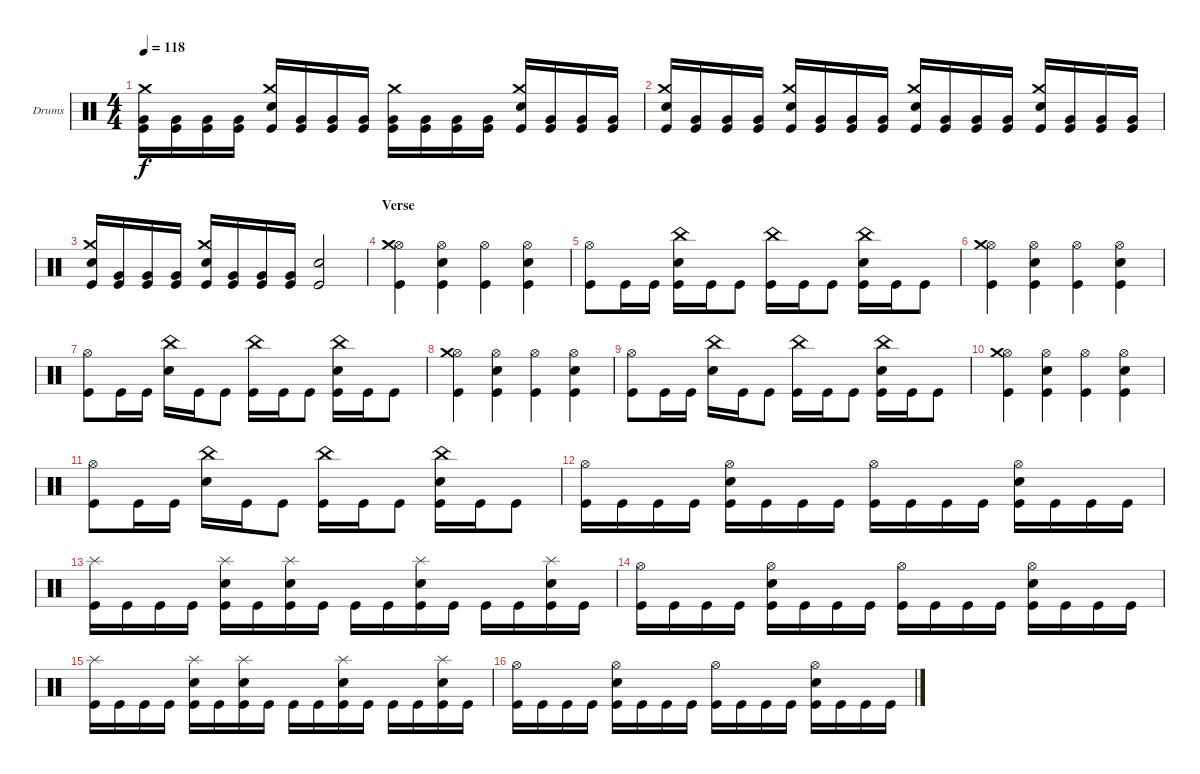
\bracketExtendMode groupsimilarinstruments
\firstSystemTrackNameOrientation horizontal
\otherSystemsTrackNameOrientation horizontal
\track ("Drumkit" "Drums") {solo instrument percussion}
\staff {score}
\articulation defaults
\ts (4 4)
\tempo 118
\clef neutral
\ks c
("Kick (hit)" "Very Low Tom (hit)" "Crash medium (hit)").16{dy f} ("Kick (hit)" "Very Low Tom (hit)").16 ("Kick (hit)" "Very Low Tom (hit)").16 ("Kick (hit)" "Very Low Tom (hit)").16 ("Kick (hit)" "Snare (hit) 2" "Crash medium (hit)").16 ("Kick (hit)" "Very Low Tom (hit)").16 ("Kick (hit)" "Very Low Tom (hit)").16 ("Kick (hit)" "Very Low Tom (hit)").16 ("Kick (hit)" "Very Low Tom (hit)" "Crash medium (hit)").16 ("Kick (hit)" "Very Low Tom (hit)").16 ("Kick (hit)" "Very Low Tom (hit)").16 ("Kick (hit)" "Very Low Tom (hit)").16 ("Kick (hit)" "Snare (hit) 2" "Crash medium (hit)").16 ("Kick (hit)" "Very Low Tom (hit)").16 ("Kick (hit)" "Very Low Tom (hit)").16 ("Kick (hit)" "Very Low Tom (hit)").16 |
("Kick (hit)" "Snare (hit) 2" "Crash medium (hit)").16 ("Kick (hit)" "Very Low Tom (hit)").16 ("Kick (hit)" "Very Low Tom (hit)").16 ("Kick (hit)" "Very Low Tom (hit)").16 ("Kick (hit)" "Snare (hit) 2" "Crash medium (hit)").16 ("Kick (hit)" "Very Low Tom (hit)").16 ("Kick (hit)" "Very Low Tom (hit)").16 ("Kick (hit)" "Very Low Tom (hit)").16 ("Kick (hit)" "Snare (hit) 2" "Crash medium (hit)").16 ("Kick (hit)" "Very Low Tom (hit)").16 ("Kick (hit)" "Very Low Tom (hit)").16 ("Kick (hit)" "Very Low Tom (hit)").16 ("Kick (hit)" "Snare (hit) 2" "Crash medium (hit)").16 ("Kick (hit)" "Very Low Tom (hit)").16 ("Kick (hit)" "Very Low Tom (hit)").16 ("Kick (hit)" "Very Low Tom (hit)").16 |
("Kick (hit)" "Snare (hit) 2" "Crash medium (hit)").16 ("Kick (hit)" "Very Low Tom (hit)").16 ("Kick (hit)" "Very Low Tom (hit)").16 ("Kick (hit)" "Very Low Tom (hit)").16 ("Kick (hit)" "Snare (hit) 2" "Crash medium (hit)").16 ("Kick (hit)" "Very Low Tom (hit)").16 ("Kick (hit)" "Very Low Tom (hit)").16 ("Kick (hit)" "Very Low Tom (hit)").16 ("Kick (hit)" "Snare (hit) 2").2 |
\section ("" "Verse")
("Kick (hit)" "Hi-Hat (open)" "Crash medium (hit)").4 ("Kick (hit)" "Snare (hit) 2" "Hi-Hat (open)").4 ("Kick (hit)" "Hi-Hat (open)").4 ("Kick (hit)" "Snare (hit) 2" "Hi-Hat (open)").4 |
("Kick (hit)" "Hi-Hat (open)").8 "Kick (hit)".16 "Kick (hit)".16 ("Snare (hit) 2" "China (hit)" "Kick (hit)").16 "Kick (hit)".16 "Kick (hit)".8 ("Kick (hit)" "China (hit)").16 "Kick (hit)".16 "Kick (hit)".8 ("Kick (hit)" "Snare (hit) 2" "China (hit)").16 "Kick (hit)".16 "Kick (hit)".8 |
("Kick (hit)" "Hi-Hat (open)" "Crash medium (hit)").4 ("Kick (hit)" "Snare (hit) 2" "Hi-Hat (open)").4 ("Kick (hit)" "Hi-Hat (open)").4 ("Kick (hit)" "Snare (hit) 2" "Hi-Hat (open)").4 |
("Kick (hit)" "Hi-Hat (open)").8 "Kick (hit)".16 "Kick (hit)".16 ("Snare (hit) 2" "China (hit)").16 "Kick (hit)".16 "Kick (hit)".8 ("Kick (hit)" "China (hit)").16 "Kick (hit)".16 "Kick (hit)".8 ("Kick (hit)" "Snare (hit) 2" "China (hit)").16 "Kick (hit)".16 "Kick (hit)".8 |
("Kick (hit)" "Hi-Hat (open)" "Crash medium (hit)").4 ("Kick (hit)" "Snare (hit) 2" "Hi-Hat (open)").4 ("Kick (hit)" "Hi-Hat (open)").4 ("Kick (hit)" "Snare (hit) 2" "Hi-Hat (open)").4 |
("Kick (hit)" "Hi-Hat (open)").8 "Kick (hit)".16 "Kick (hit)".16 ("Snare (hit) 2" "China (hit)").16 "Kick (hit)".16 "Kick (hit)".8 ("Kick (hit)" "China (hit)").16 "Kick (hit)".16 "Kick (hit)".8 ("Kick (hit)" "Snare (hit) 2" "China (hit)").16 "Kick (hit)".16 "Kick (hit)".8 |
("Kick (hit)" "Hi-Hat (open)" "Crash medium (hit)").4 ("Kick (hit)" "Snare (hit) 2" "Hi-Hat (open)").4 ("Kick (hit)" "Hi-Hat (open)").4 ("Kick (hit)" "Snare (hit) 2" "Hi-Hat (open)").4 |
("Kick (hit)" "Hi-Hat (open)").8 "Kick (hit)".16 "Kick (hit)".16 ("Snare (hit) 2" "China (hit)").16 "Kick (hit)".16 "Kick (hit)".8 ("Kick (hit)" "China (hit)").16 "Kick (hit)".16 "Kick (hit)".8 ("Kick (hit)" "Snare (hit) 2" "China (hit)").16 "Kick (hit)".16 "Kick (hit)".8 |
("Kick (hit)" "Hi-Hat (open)").16 "Kick (hit)".16 "Kick (hit)".16 "Kick (hit)".16 ("Kick (hit)" "Snare (hit) 2" "Hi-Hat (open)").16 "Kick (hit)".16 "Kick (hit)".16 "Kick (hit)".16 ("Kick (hit)" "Hi-Hat (open)").16 "Kick (hit)".16 "Kick (hit)".16 "Kick (hit)".16 ("Kick (hit)" "Snare (hit) 2" "Hi-Hat (open)").16 "Kick (hit)".16 "Kick (hit)".16 "Kick (hit)".16 |
("Kick (hit)" "Splash (hit)").16 "Kick (hit)".16 "Kick (hit)".16 "Kick (hit)".16 ("Kick (hit)" "Splash (hit)" "Snare (hit) 2").16 "Kick (hit)".16 ("Kick (hit)" "Splash (hit)" "Snare (hit) 2").16 "Kick (hit)".16 "Kick (hit)".16 "Kick (hit)".16 ("Kick (hit)" "Splash (hit)" "Snare (hit) 2").16 "Kick (hit)".16 "Kick (hit)".16 "Kick (hit)".16 ("Kick (hit)" "Splash (hit)" "Snare (hit) 2").16 "Kick (hit)".16 |
("Kick (hit)" "Hi-Hat (open)").16 "Kick (hit)".16 "Kick (hit)".16 "Kick (hit)".16 ("Kick (hit)" "Snare (hit) 2" "Hi-Hat (open)").16 "Kick (hit)".16 "Kick (hit)".16 "Kick (hit)".16 ("Kick (hit)" "Hi-Hat (open)").16 "Kick (hit)".16 "Kick (hit)".16 "Kick (hit)".16 ("Kick (hit)" "Snare (hit) 2" "Hi-Hat (open)").16 "Kick (hit)".16 "Kick (hit)".16 "Kick (hit)".16 |
("Kick (hit)" "Splash (hit)").16 "Kick (hit)".16 "Kick (hit)".16 "Kick (hit)".16 ("Kick (hit)" "Splash (hit)" "Snare (hit) 2").16 "Kick (hit)".16 ("Kick (hit)" "Splash (hit)" "Snare (hit) 2").16 "Kick (hit)".16 "Kick (hit)".16 "Kick (hit)".16 ("Kick (hit)" "Splash (hit)" "Snare (hit) 2").16 "Kick (hit)".16 "Kick (hit)".16 "Kick (hit)".16 ("Kick (hit)" "Splash (hit)" "Snare (hit) 2").16 "Kick (hit)".16 |
("Kick (hit)" "Hi-Hat (open)").16 "Kick (hit)".16 "Kick (hit)".16 "Kick (hit)".16 ("Kick (hit)" "Snare (hit) 2" "Hi-Hat (open)").16 "Kick (hit)".16 "Kick (hit)".16 "Kick (hit)".16 ("Kick (hit)" "Hi-Hat (open)").16 "Kick (hit)".16 "Kick (hit)".16 "Kick (hit)".16 ("Kick (hit)" "Snare (hit) 2" "Hi-Hat (open)").16 "Kick (hit)".16 "Kick (hit)".16 "Kick (hit)".16
